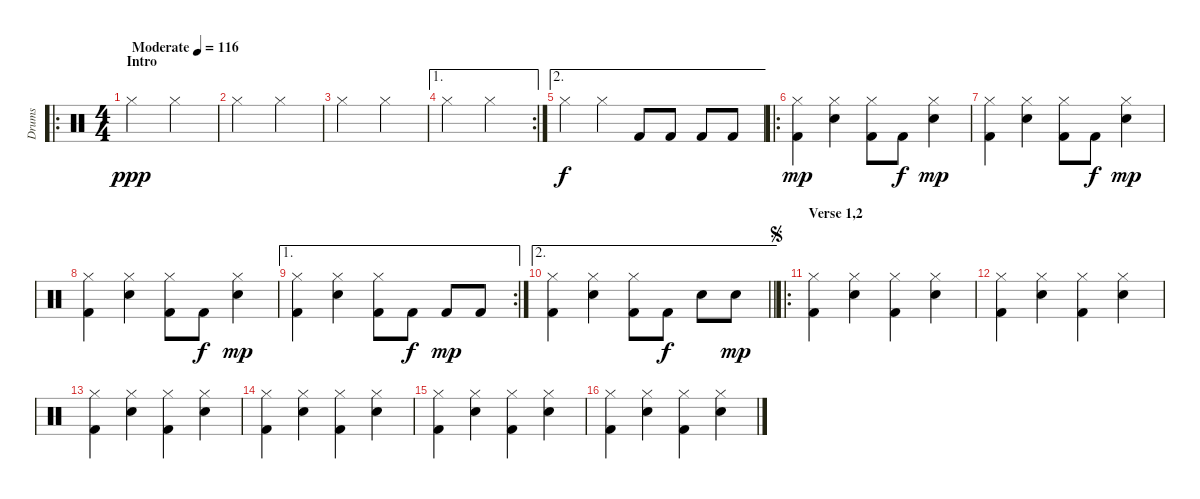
\track ("Drums" "Drums") {instrument percussion}
\staff {score}
\articulation defaults
\ro
\ts (4 4)
\section ("" "Intro")
\tempo (116 "Moderate")
\clef neutral
\ks c "Hi-Hat (closed)".2{dy ppp} "Hi-Hat (closed)".2
|
"Hi-Hat (closed)".2 "Hi-Hat (closed)".2 |
"Hi-Hat (closed)".2 "Hi-Hat (closed)".2 |
\ae 1
\rc 2 "Hi-Hat (closed)".2 "Hi-Hat (closed)".2
|
\ae 2 "Hi-Hat (closed)".4{dy f} "Hi-Hat (closed)".4 "Kick (hit) 2".8 "Kick (hit) 2".8 "Kick (hit) 2".8 "Kick (hit) 2".8
|
\ro
("Hi-Hat (closed)" "Kick (hit) 2").4{dy mp} ("Hi-Hat (closed)" "Snare (hit) 2").4 ("Hi-Hat (closed)" "Kick (hit) 2").8 "Kick (hit) 2".8{dy f} ("Hi-Hat (closed)" "Snare (hit) 2").4{dy mp} |
("Hi-Hat (closed)" "Kick (hit) 2").4 ("Hi-Hat (closed)" "Snare (hit) 2").4 ("Hi-Hat (closed)" "Kick (hit) 2").8 "Kick (hit) 2".8{dy f} ("Hi-Hat (closed)" "Snare (hit) 2").4{dy mp} |
("Hi-Hat (closed)" "Kick (hit) 2").4 ("Hi-Hat (closed)" "Snare (hit) 2").4 ("Hi-Hat (closed)" "Kick (hit) 2").8 "Kick (hit) 2".8{dy f} ("Hi-Hat (closed)" "Snare (hit) 2").4{dy mp} |
\ae 1
\rc 2
("Hi-Hat (closed)" "Kick (hit) 2").4 ("Hi-Hat (closed)" "Snare (hit) 2").4 ("Hi-Hat (closed)" "Kick (hit) 2").8 "Kick (hit) 2".8{dy f} "Kick (hit) 2".8{dy mp} "Kick (hit) 2".8 |
\ae 2
\barLineRight lightlight
("Hi-Hat (closed)" "Kick (hit) 2").4 ("Hi-Hat (closed)" "Snare (hit) 2").4 ("Hi-Hat (closed)" "Kick (hit) 2").8 "Kick (hit) 2".8{dy f} "Snare (hit) 2".8 "Snare (hit) 2".8{dy mp} |
\ro
\section ("" "Verse 1,2")
\jump segno
("Hi-Hat (closed)" "Kick (hit) 2").4 ("Hi-Hat (closed)" "Snare (hit) 2").4 ("Hi-Hat (closed)" "Kick (hit) 2").4 ("Hi-Hat (closed)" "Snare (hit) 2").4 |
("Hi-Hat (closed)" "Kick (hit) 2").4 ("Hi-Hat (closed)" "Snare (hit) 2").4 ("Hi-Hat (closed)" "Kick (hit) 2").4 ("Hi-Hat (closed)" "Snare (hit) 2").4 |
("Hi-Hat (closed)" "Kick (hit) 2").4 ("Hi-Hat (closed)" "Snare (hit) 2").4 ("Hi-Hat (closed)" "Kick (hit) 2").4 ("Hi-Hat (closed)" "Snare (hit) 2").4 |
("Hi-Hat (closed)" "Kick (hit) 2").4 ("Hi-Hat (closed)" "Snare (hit) 2").4 ("Hi-Hat (closed)" "Kick (hit) 2").4 ("Hi-Hat (closed)" "Snare (hit) 2").4 |
("Hi-Hat (closed)" "Kick (hit) 2").4 ("Hi-Hat (closed)" "Snare (hit) 2").4 ("Hi-Hat (closed)" "Kick (hit) 2").4 ("Hi-Hat (closed)" "Snare (hit) 2").4 |
("Hi-Hat (closed)" "Kick (hit) 2").4 ("Hi-Hat (closed)" "Snare (hit) 2").4 ("Hi-Hat (closed)" "Kick (hit) 2").4 ("Hi-Hat (closed)" "Snare (hit) 2").4
